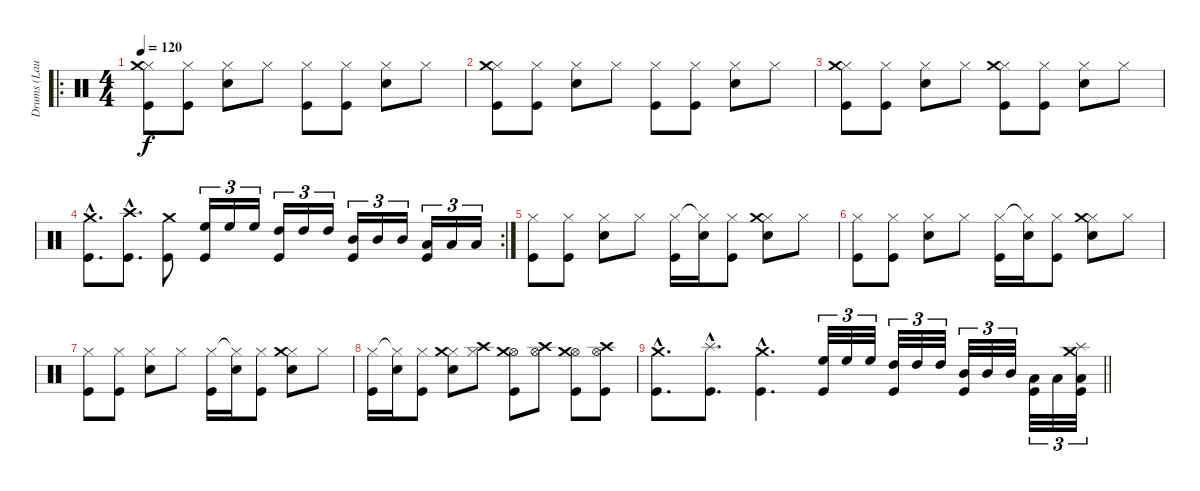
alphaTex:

\track ("Drums (Laurent)" "Drums (Lau") {instrument percussion}
\staff {score}
\articulation defaults
\ro
\ts (4 4)
\tempo 120
\clef neutral
\ks c
("Hi-Hat (closed)" "Crash medium (hit)" "Kick (hit)").8{dy f} ("Hi-Hat (closed)" "Kick (hit)").8 ("Hi-Hat (closed)" "Electric Snare (hit)").8 "Hi-Hat (closed)".8 ("Hi-Hat (closed)" "Kick (hit)").8 ("Hi-Hat (closed)" "Kick (hit)").8 ("Hi-Hat (closed)" "Electric Snare (hit)").8 "Hi-Hat (closed)".8 |
("Hi-Hat (closed)" "Crash medium (hit)" "Kick (hit)").8 ("Hi-Hat (closed)" "Kick (hit)").8 ("Hi-Hat (closed)" "Electric Snare (hit)").8 "Hi-Hat (closed)".8 ("Hi-Hat (closed)" "Kick (hit)").8 ("Hi-Hat (closed)" "Kick (hit)").8 ("Hi-Hat (closed)" "Electric Snare (hit)").8 "Hi-Hat (closed)".8 |
("Hi-Hat (closed)" "Crash medium (hit)" "Kick (hit)").8 ("Hi-Hat (closed)" "Kick (hit)").8 ("Hi-Hat (closed)" "Electric Snare (hit)").8 "Hi-Hat (closed)".8 ("Hi-Hat (closed)" "Crash medium (hit)" "Kick (hit)").8 ("Hi-Hat (closed)" "Kick (hit)").8 ("Hi-Hat (closed)" "Electric Snare (hit)").8 "Hi-Hat (closed)".8 |
\rc 2
("Crash medium (hit)"{hac} "Kick (hit)"{hac}).8{d} ("Crash high (hit)"{hac} "Kick (hit)"{hac}).8{d} ("Crash medium (hit)" "Kick (hit)").8 ("High Floor Tom (hit)" "Kick (hit)").16{tu (3 2)} "High Floor Tom (hit)".16{tu (3 2)} "High Floor Tom (hit)".16{tu (3 2)} ("High Tom (hit)" "Kick (hit)").16{tu (3 2)} "High Tom (hit)".16{tu (3 2)} "High Tom (hit)".16{tu (3 2)} ("Mid Tom (hit)" "Kick (hit)").16{tu (3 2)} "Mid Tom (hit)".16{tu (3 2)} "Mid Tom (hit)".16{tu (3 2)} ("Low Tom (hit)" "Kick (hit)").16{tu (3 2)} "Low Tom (hit)".16{tu (3 2)} "Low Tom (hit)".16{tu (3 2)} |
("Hi-Hat (closed)" "Kick (hit)").8 ("Hi-Hat (closed)" "Kick (hit)").8 ("Hi-Hat (closed)" "Electric Snare (hit)").8 "Hi-Hat (closed)".8 ("Hi-Hat (closed)" "Kick (hit)").16 ("Hi-Hat (closed)"{t} "Electric Snare (hit)").16 ("Hi-Hat (closed)" "Kick (hit)").8 ("Hi-Hat (closed)" "Crash medium (hit)" "Electric Snare (hit)").8 "Hi-Hat (closed)".8 |
("Hi-Hat (closed)" "Kick (hit)").8 ("Hi-Hat (closed)" "Kick (hit)").8 ("Hi-Hat (closed)" "Electric Snare (hit)").8 "Hi-Hat (closed)".8 ("Hi-Hat (closed)" "Kick (hit)").16 ("Hi-Hat (closed)"{t} "Electric Snare (hit)").16 ("Hi-Hat (closed)" "Kick (hit)").8 ("Hi-Hat (closed)" "Crash medium (hit)" "Electric Snare (hit)").8 "Hi-Hat (closed)".8 |
("Hi-Hat (closed)" "Kick (hit)").8 ("Hi-Hat (closed)" "Kick (hit)").8 ("Hi-Hat (closed)" "Electric Snare (hit)").8 "Hi-Hat (closed)".8 ("Hi-Hat (closed)" "Kick (hit)").16 ("Hi-Hat (closed)"{t} "Electric Snare (hit)").16 ("Hi-Hat (closed)" "Kick (hit)").8 ("Hi-Hat (closed)" "Crash medium (hit)" "Electric Snare (hit)").8 "Hi-Hat (closed)".8 |
("Hi-Hat (closed)" "Kick (hit)").16 ("Hi-Hat (closed)"{t} "Electric Snare (hit)").16 ("Hi-Hat (closed)" "Kick (hit)").8 ("Hi-Hat (closed)" "Crash medium (hit)" "Electric Snare (hit)").8 ("Hi-Hat (closed)" "Crash high (hit)").8 ("Hi-Hat (open)" "Crash medium (hit)" "Kick (hit)").8 ("Hi-Hat (open)" "Crash high (hit)").8 ("Hi-Hat (open)" "Crash medium (hit)" "Kick (hit)").8 ("Hi-Hat (open)" "Crash high (hit)" "Kick (hit)").8 |
\barLineRight lightlight
("Crash medium (hit)"{hac} "Kick (hit)"{hac}).8{d} ("Splash (hit)"{hac} "Kick (hit)"{hac}).8{d} ("Crash medium (hit)"{hac} "Kick (hit)"{hac}).4{d} ("High Floor Tom (hit)" "Kick (hit)").32{tu (3 2)} "High Floor Tom (hit)".32{tu (3 2)} "High Floor Tom (hit)".32{tu (3 2)} ("High Tom (hit)" "Kick (hit)").32{tu (3 2)} "High Tom (hit)".32{tu (3 2)} "High Tom (hit)".32{tu (3 2)} ("Mid Tom (hit)" "Kick (hit)").32{tu (3 2)} "Mid Tom (hit)".32{tu (3 2)} "Mid Tom (hit)".32{tu (3 2)} ("Low Tom (hit)" "Kick (hit)").32{tu (3 2)} "Low Tom (hit)".32{tu (3 2)} ("Low Tom (hit)" "Crash medium (hit)" "Kick (hit)" "Splash (hit)").32{tu (3 2)}
